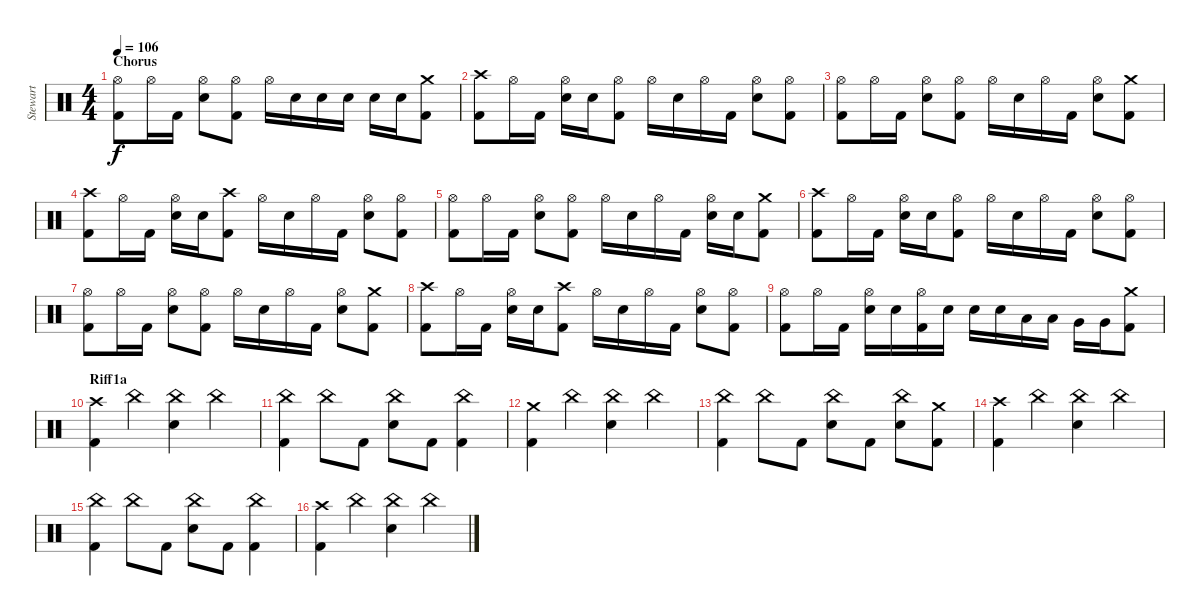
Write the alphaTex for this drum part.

\track ("Stewart" "Stewart") {instrument percussion}
\staff {score}
\articulation defaults
\ts (4 4)
\section ("" "Chorus")
\tempo 106
\clef neutral
\ks c
("Hi-Hat (open)" "Kick (hit) 2").8{dy f} "Hi-Hat (open)".16 "Kick (hit) 2".16 ("Hi-Hat (open)" "Electric Snare (hit)").8 ("Hi-Hat (open)" "Kick (hit) 2").8 "Hi-Hat (open)".16 "Electric Snare (hit)".16 "Electric Snare (hit)".16 "Electric Snare (hit)".16 "Electric Snare (hit)".16 "Electric Snare (hit)".16 ("Crash medium (hit)" "Kick (hit) 2").8 |
("Crash high (hit)" "Kick (hit) 2").8 "Hi-Hat (open)".16 "Kick (hit) 2".16 ("Hi-Hat (open)" "Electric Snare (hit)").16 "Electric Snare (hit)".16 ("Hi-Hat (open)" "Kick (hit) 2").8 "Hi-Hat (open)".16 "Electric Snare (hit)".16 "Hi-Hat (open)".16 "Kick (hit) 2".16 ("Hi-Hat (open)" "Electric Snare (hit)").8 ("Hi-Hat (open)" "Kick (hit) 2").8 |
("Hi-Hat (open)" "Kick (hit) 2").8 "Hi-Hat (open)".16 "Kick (hit) 2".16 ("Hi-Hat (open)" "Electric Snare (hit)").8 ("Hi-Hat (open)" "Kick (hit) 2").8 "Hi-Hat (open)".16 "Electric Snare (hit)".16 "Hi-Hat (open)".16 "Kick (hit) 2".16 ("Hi-Hat (open)" "Electric Snare (hit)").8 ("Crash medium (hit)" "Kick (hit) 2").8 |
("Crash high (hit)" "Kick (hit) 2").8 "Hi-Hat (open)".16 "Kick (hit) 2".16 ("Hi-Hat (open)" "Electric Snare (hit)").16 "Electric Snare (hit)".16 ("Crash high (hit)" "Kick (hit) 2").8 "Hi-Hat (open)".16 "Electric Snare (hit)".16 "Hi-Hat (open)".16 "Kick (hit) 2".16 ("Hi-Hat (open)" "Electric Snare (hit)").8 ("Hi-Hat (open)" "Kick (hit) 2").8 |
("Hi-Hat (open)" "Kick (hit) 2").8 "Hi-Hat (open)".16 "Kick (hit) 2".16 ("Hi-Hat (open)" "Electric Snare (hit)").8 ("Hi-Hat (open)" "Kick (hit) 2").8 "Hi-Hat (open)".16 "Electric Snare (hit)".16 "Hi-Hat (open)".16 "Kick (hit) 2".16 ("Hi-Hat (open)" "Electric Snare (hit)").16 "Electric Snare (hit)".16 ("Crash medium (hit)" "Kick (hit) 2").8 |
("Crash high (hit)" "Kick (hit) 2").8 "Hi-Hat (open)".16 "Kick (hit) 2".16 ("Hi-Hat (open)" "Electric Snare (hit)").16 "Electric Snare (hit)".16 ("Hi-Hat (open)" "Kick (hit) 2").8 "Hi-Hat (open)".16 "Electric Snare (hit)".16 "Hi-Hat (open)".16 "Kick (hit) 2".16 ("Hi-Hat (open)" "Electric Snare (hit)").8 ("Hi-Hat (open)" "Kick (hit) 2").8 |
("Hi-Hat (open)" "Kick (hit) 2").8 "Hi-Hat (open)".16 "Kick (hit) 2".16 ("Hi-Hat (open)" "Electric Snare (hit)").8 ("Hi-Hat (open)" "Kick (hit) 2").8 "Hi-Hat (open)".16 "Electric Snare (hit)".16 "Hi-Hat (open)".16 "Kick (hit) 2".16 ("Hi-Hat (open)" "Electric Snare (hit)").8 ("Crash medium (hit)" "Kick (hit) 2").8 |
("Crash high (hit)" "Kick (hit) 2").8 "Hi-Hat (open)".16 "Kick (hit) 2".16 ("Hi-Hat (open)" "Electric Snare (hit)").16 "Electric Snare (hit)".16 ("Crash high (hit)" "Kick (hit) 2").8 "Hi-Hat (open)".16 "Electric Snare (hit)".16 "Hi-Hat (open)".16 "Kick (hit) 2".16 ("Hi-Hat (open)" "Electric Snare (hit)").8 ("Hi-Hat (open)" "Kick (hit) 2").8 |
("Hi-Hat (open)" "Kick (hit) 2").8 "Hi-Hat (open)".16 "Kick (hit) 2".16 ("Hi-Hat (open)" "Electric Snare (hit)").16 "Electric Snare (hit)".16 ("Hi-Hat (open)" "Kick (hit) 2").16 "Electric Snare (hit)".16 "Electric Snare (hit)".16 "Electric Snare (hit)".16 "Low Tom (hit)".16 "Low Tom (hit)".16 "Very Low Tom (hit)".16 "Very Low Tom (hit)".16 ("Crash medium (hit)" "Kick (hit) 2").8 |
\section ("" "Riff1a")
("Crash high (hit)" "Kick (hit) 2").4 "China (hit)".4 ("China (hit)" "Electric Snare (hit)").4 "China (hit)".4 |
("China (hit)" "Kick (hit) 2").4 "China (hit)".8 "Kick (hit) 2".8 ("China (hit)" "Electric Snare (hit)").8 "Kick (hit) 2".8 ("China (hit)" "Kick (hit) 2").4 |
("Crash medium (hit)" "Kick (hit) 2").4 "China (hit)".4 ("China (hit)" "Electric Snare (hit)").4 "China (hit)".4 |
("China (hit)" "Kick (hit) 2").4 "China (hit)".8 "Kick (hit) 2".8 ("China (hit)" "Electric Snare (hit)").8 "Kick (hit) 2".8 ("China (hit)" "Electric Snare (hit)").8 ("Crash medium (hit)" "Kick (hit) 2").8 |
("Crash high (hit)" "Kick (hit) 2").4 "China (hit)".4 ("China (hit)" "Electric Snare (hit)").4 "China (hit)".4 |
("China (hit)" "Kick (hit) 2").4 "China (hit)".8 "Kick (hit) 2".8 ("China (hit)" "Electric Snare (hit)").8 "Kick (hit) 2".8 ("China (hit)" "Kick (hit) 2").4 |
("Crash high (hit)" "Kick (hit) 2").4 "China (hit)".4 ("China (hit)" "Electric Snare (hit)").4 "China (hit)".4
